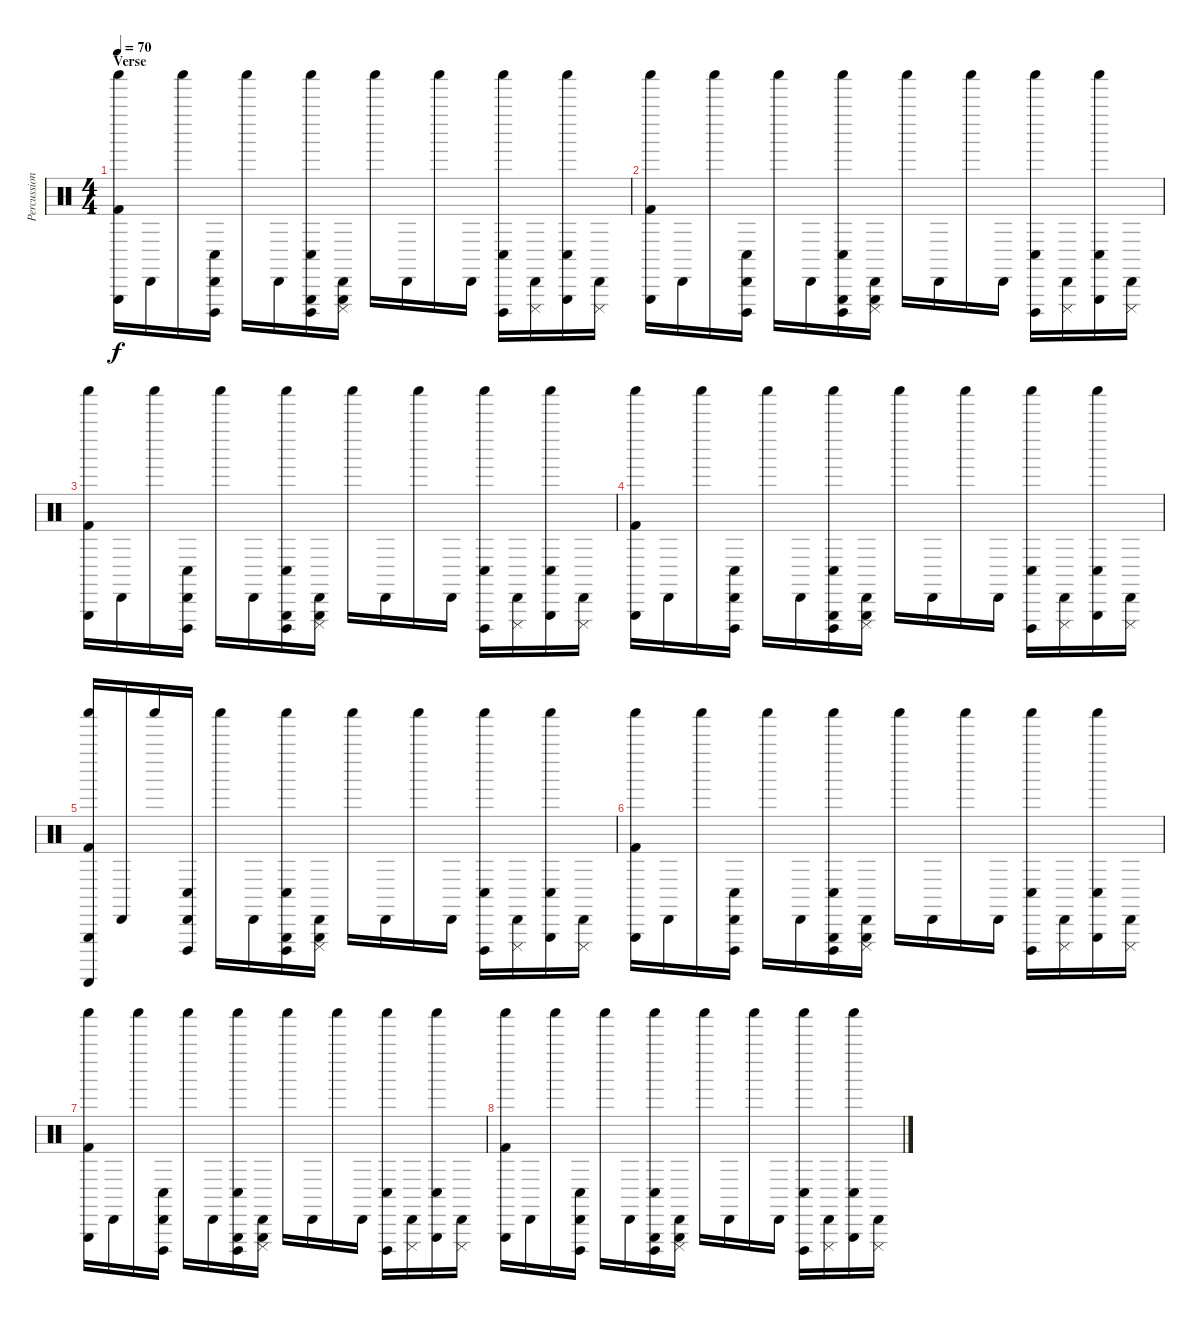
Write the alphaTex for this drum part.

\track ("Percussion" "Percussion") {instrument percussion}
\staff {score}
\articulation defaults
\ts (4 4)
\section ("" "Verse")
\tempo 70
\clef neutral
\ks c
("Triangle (hit)" "Shaker (hit)" "Kick (hit) 2").16{dy f} "Cabasa (hit)".16 "Shaker (hit)".16 ("Cabasa (hit)" "Cuica (open)" "Conga low (hit)").16 "Shaker (hit)".16 "Cabasa (hit)".16 ("Triangle (hit)" "Shaker (hit)" "Cuica (open)" "Conga low (hit)").16 ("Triangle (hit)" "Cabasa (hit)" "Cuica (mute)").16 "Shaker (hit)".16 "Cabasa (hit)".16 "Shaker (hit)".16 "Cabasa (hit)".16 ("Shaker (hit)" "Cuica (open)" "Conga low (hit)").16 ("Cabasa (hit)" "Cuica (mute)").16 ("Triangle (hit)" "Shaker (hit)" "Conga low (hit)").16 ("Cabasa (hit)" "Cuica (mute)").16 |
("Triangle (hit)" "Shaker (hit)" "Kick (hit) 2").16 "Cabasa (hit)".16 "Shaker (hit)".16 ("Cabasa (hit)" "Cuica (open)" "Conga low (hit)").16 "Shaker (hit)".16 "Cabasa (hit)".16 ("Triangle (hit)" "Shaker (hit)" "Cuica (open)" "Conga low (hit)").16 ("Triangle (hit)" "Cabasa (hit)" "Cuica (mute)").16 "Shaker (hit)".16 "Cabasa (hit)".16 "Shaker (hit)".16 "Cabasa (hit)".16 ("Shaker (hit)" "Cuica (open)" "Conga low (hit)").16 ("Cabasa (hit)" "Cuica (mute)").16 ("Triangle (hit)" "Shaker (hit)" "Conga low (hit)").16 ("Cabasa (hit)" "Cuica (mute)").16 |
("Triangle (hit)" "Shaker (hit)" "Kick (hit) 2").16 "Cabasa (hit)".16 "Shaker (hit)".16 ("Cabasa (hit)" "Cuica (open)" "Conga low (hit)").16 "Shaker (hit)".16 "Cabasa (hit)".16 ("Triangle (hit)" "Shaker (hit)" "Cuica (open)" "Conga low (hit)").16 ("Triangle (hit)" "Cabasa (hit)" "Cuica (mute)").16 "Shaker (hit)".16 "Cabasa (hit)".16 "Shaker (hit)".16 "Cabasa (hit)".16 ("Shaker (hit)" "Cuica (open)" "Conga low (hit)").16 ("Cabasa (hit)" "Cuica (mute)").16 ("Triangle (hit)" "Shaker (hit)" "Conga low (hit)").16 ("Cabasa (hit)" "Cuica (mute)").16 |
("Triangle (hit)" "Shaker (hit)" "Kick (hit) 2").16 "Cabasa (hit)".16 "Shaker (hit)".16 ("Cabasa (hit)" "Cuica (open)" "Conga low (hit)").16 "Shaker (hit)".16 "Cabasa (hit)".16 ("Triangle (hit)" "Shaker (hit)" "Cuica (open)" "Conga low (hit)").16 ("Triangle (hit)" "Cabasa (hit)" "Cuica (mute)").16 "Shaker (hit)".16 "Cabasa (hit)".16 "Shaker (hit)".16 "Cabasa (hit)".16 ("Shaker (hit)" "Cuica (open)" "Conga low (hit)").16 ("Cabasa (hit)" "Cuica (mute)").16 ("Triangle (hit)" "Shaker (hit)" "Conga low (hit)").16 ("Cabasa (hit)" "Cuica (mute)").16 |
("Triangle (hit)" "Guiro (scrap-return)" "Shaker (hit)" "Kick (hit) 2").16 "Cabasa (hit)".16 "Shaker (hit)".16 ("Cabasa (hit)" "Cuica (open)" "Conga low (hit)").16 "Shaker (hit)".16 "Cabasa (hit)".16 ("Triangle (hit)" "Shaker (hit)" "Cuica (open)" "Conga low (hit)").16 ("Triangle (hit)" "Cabasa (hit)" "Cuica (mute)").16 "Shaker (hit)".16 "Cabasa (hit)".16 "Shaker (hit)".16 "Cabasa (hit)".16 ("Shaker (hit)" "Cuica (open)" "Conga low (hit)").16 ("Cabasa (hit)" "Cuica (mute)").16 ("Triangle (hit)" "Shaker (hit)" "Conga low (hit)").16 ("Cabasa (hit)" "Cuica (mute)").16 |
("Triangle (hit)" "Shaker (hit)" "Kick (hit) 2").16 "Cabasa (hit)".16 "Shaker (hit)".16 ("Cabasa (hit)" "Cuica (open)" "Conga low (hit)").16 "Shaker (hit)".16 "Cabasa (hit)".16 ("Triangle (hit)" "Shaker (hit)" "Cuica (open)" "Conga low (hit)").16 ("Triangle (hit)" "Cabasa (hit)" "Cuica (mute)").16 "Shaker (hit)".16 "Cabasa (hit)".16 "Shaker (hit)".16 "Cabasa (hit)".16 ("Shaker (hit)" "Cuica (open)" "Conga low (hit)").16 ("Cabasa (hit)" "Cuica (mute)").16 ("Triangle (hit)" "Shaker (hit)" "Conga low (hit)").16 ("Cabasa (hit)" "Cuica (mute)").16 |
("Triangle (hit)" "Shaker (hit)" "Kick (hit) 2").16 "Cabasa (hit)".16 "Shaker (hit)".16 ("Cabasa (hit)" "Cuica (open)" "Conga low (hit)").16 "Shaker (hit)".16 "Cabasa (hit)".16 ("Triangle (hit)" "Shaker (hit)" "Cuica (open)" "Conga low (hit)").16 ("Triangle (hit)" "Cabasa (hit)" "Cuica (mute)").16 "Shaker (hit)".16 "Cabasa (hit)".16 "Shaker (hit)".16 "Cabasa (hit)".16 ("Shaker (hit)" "Cuica (open)" "Conga low (hit)").16 ("Cabasa (hit)" "Cuica (mute)").16 ("Triangle (hit)" "Shaker (hit)" "Conga low (hit)").16 ("Cabasa (hit)" "Cuica (mute)").16 |
("Triangle (hit)" "Shaker (hit)" "Kick (hit) 2").16 "Cabasa (hit)".16 "Shaker (hit)".16 ("Cabasa (hit)" "Cuica (open)" "Conga low (hit)").16 "Shaker (hit)".16 "Cabasa (hit)".16 ("Triangle (hit)" "Shaker (hit)" "Cuica (open)" "Conga low (hit)").16 ("Triangle (hit)" "Cabasa (hit)" "Cuica (mute)").16 "Shaker (hit)".16 "Cabasa (hit)".16 "Shaker (hit)".16 "Cabasa (hit)".16 ("Shaker (hit)" "Cuica (open)" "Conga low (hit)").16 ("Cabasa (hit)" "Cuica (mute)").16 ("Triangle (hit)" "Shaker (hit)" "Conga low (hit)").16 ("Cabasa (hit)" "Cuica (mute)").16
